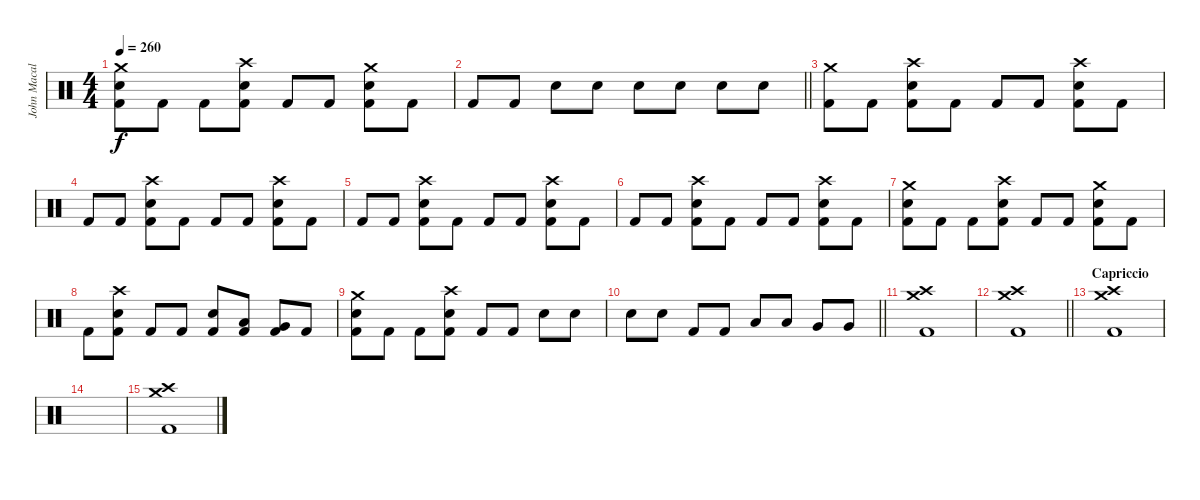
\track ("John Macaluso" "John Macal") {instrument percussion}
\staff {score}
\articulation defaults
\ts (4 4)
\tempo 260
\clef neutral
\ks c
("Crash medium (hit)" "Snare (hit) 2" "Kick (hit) 2").8{dy f} "Kick (hit) 2".8 "Kick (hit) 2".8 ("Crash high (hit)" "Snare (hit) 2" "Kick (hit) 2").8 "Kick (hit) 2".8 "Kick (hit) 2".8 ("Crash medium (hit)" "Snare (hit) 2" "Kick (hit) 2").8 "Kick (hit) 2".8 |
\barLineRight lightlight "Kick (hit) 2".8 "Kick (hit) 2".8 "Snare (hit) 2".8 "Snare (hit) 2".8 "Snare (hit) 2".8 "Snare (hit) 2".8 "Snare (hit) 2".8 "Snare (hit) 2".8
|
("Crash medium (hit)" "Kick (hit) 2").8 "Kick (hit) 2".8 ("Crash high (hit)" "Snare (hit) 2" "Kick (hit) 2").8 "Kick (hit) 2".8 "Kick (hit) 2".8 "Kick (hit) 2".8 ("Crash high (hit)" "Snare (hit) 2" "Kick (hit) 2").8 "Kick (hit) 2".8 |
"Kick (hit) 2".8 "Kick (hit) 2".8 ("Crash high (hit)" "Snare (hit) 2" "Kick (hit) 2").8 "Kick (hit) 2".8 "Kick (hit) 2".8 "Kick (hit) 2".8 ("Crash high (hit)" "Snare (hit) 2" "Kick (hit) 2").8 "Kick (hit) 2".8 |
"Kick (hit) 2".8 "Kick (hit) 2".8 ("Crash high (hit)" "Snare (hit) 2" "Kick (hit) 2").8 "Kick (hit) 2".8 "Kick (hit) 2".8 "Kick (hit) 2".8 ("Crash high (hit)" "Snare (hit) 2" "Kick (hit) 2").8 "Kick (hit) 2".8 |
"Kick (hit) 2".8 "Kick (hit) 2".8 ("Crash high (hit)" "Snare (hit) 2" "Kick (hit) 2").8 "Kick (hit) 2".8 "Kick (hit) 2".8 "Kick (hit) 2".8 ("Crash high (hit)" "Snare (hit) 2" "Kick (hit) 2").8 "Kick (hit) 2".8 |
("Crash medium (hit)" "Snare (hit) 2" "Kick (hit) 2").8 "Kick (hit) 2".8 "Kick (hit) 2".8 ("Crash high (hit)" "Snare (hit) 2" "Kick (hit) 2").8 "Kick (hit) 2".8 "Kick (hit) 2".8 ("Crash medium (hit)" "Snare (hit) 2" "Kick (hit) 2").8 "Kick (hit) 2".8 |
"Kick (hit) 2".8 ("Crash high (hit)" "Snare (hit) 2" "Kick (hit) 2").8 "Kick (hit) 2".8 "Kick (hit) 2".8 ("Snare (hit) 2" "Kick (hit) 2").8 ("Low Tom (hit)" "Kick (hit) 2").8 ("Very Low Tom (hit)" "Kick (hit) 2").8 "Kick (hit) 2".8 |
("Crash medium (hit)" "Snare (hit) 2" "Kick (hit) 2").8 "Kick (hit) 2".8 "Kick (hit) 2".8 ("Crash high (hit)" "Snare (hit) 2" "Kick (hit) 2").8 "Kick (hit) 2".8 "Kick (hit) 2".8 "Snare (hit) 2".8 "Snare (hit) 2".8 |
\barLineRight lightlight "Snare (hit) 2".8 "Snare (hit) 2".8 "Kick (hit) 2".8 "Kick (hit) 2".8 "Low Tom (hit)".8 "Low Tom (hit)".8 "Very Low Tom (hit)".8 "Very Low Tom (hit)".8
|
("Crash high (hit)" "Crash medium (hit)" "Kick (hit) 2").1 |
\barLineRight lightlight
("Crash medium (hit)" "Crash high (hit)" "Kick (hit) 2").1 |
\section ("" "Capriccio")
("Crash medium (hit)" "Crash high (hit)" "Kick (hit) 2").1 |
|
("Crash medium (hit)" "Crash high (hit)" "Kick (hit) 2").1
